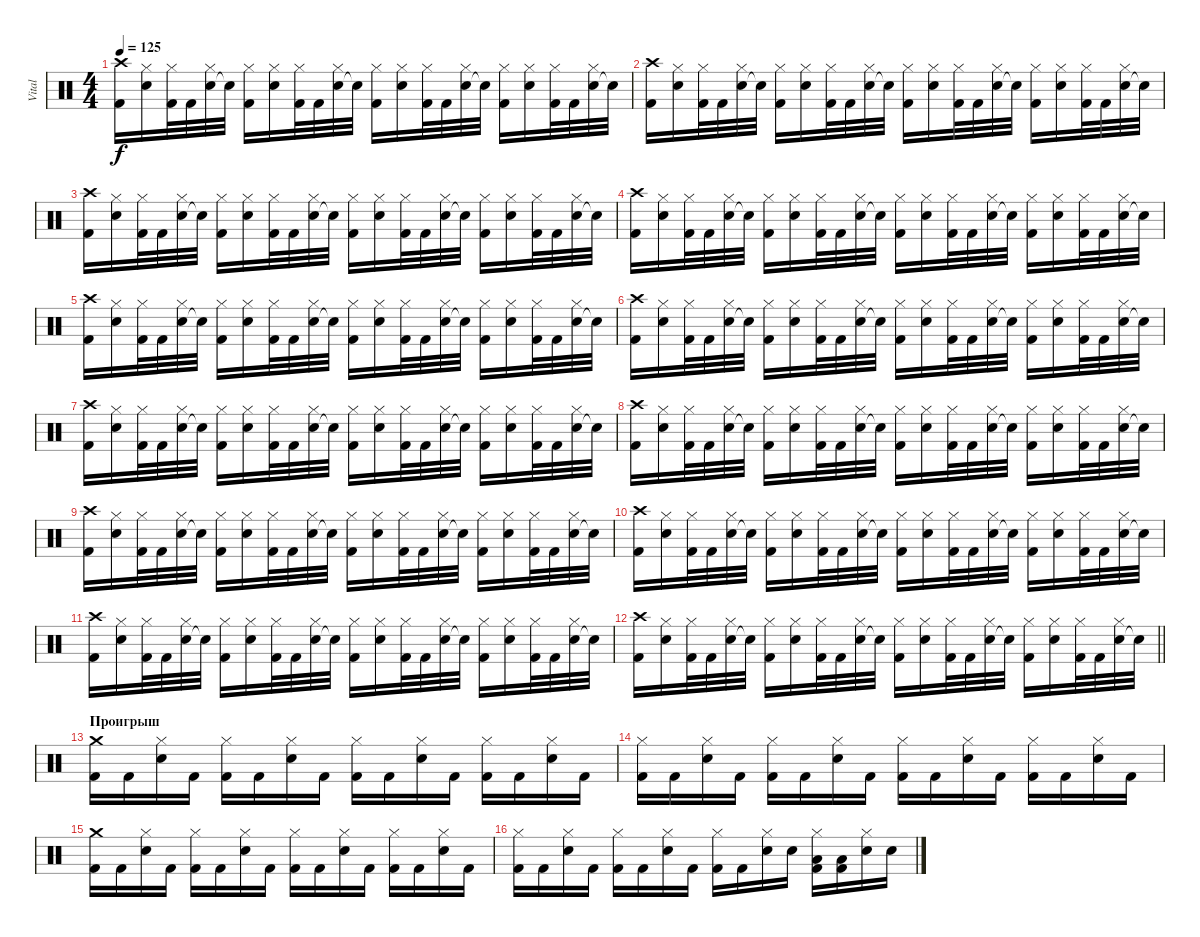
\track ("Vital" "Vital") {instrument percussion}
\staff {score}
\articulation defaults
\ts (4 4)
\tempo 125
\clef neutral
\ks c
("Kick (hit) 2" "Crash high (hit)").16{dy f} ("Snare (hit) 2" "Hi-Hat (closed)").16 ("Kick (hit) 2" "Hi-Hat (closed)").32 "Kick (hit) 2".32 ("Snare (hit) 2" "Hi-Hat (closed)").32 "Snare (hit) 2"{t}.32 ("Kick (hit) 2" "Hi-Hat (closed)").16 ("Snare (hit) 2" "Hi-Hat (closed)").16 ("Kick (hit) 2" "Hi-Hat (closed)").32 "Kick (hit) 2".32 ("Snare (hit) 2" "Hi-Hat (closed)").32 "Snare (hit)"{t}.32 ("Kick (hit) 2" "Hi-Hat (closed)").16 ("Snare (hit) 2" "Hi-Hat (closed)").16 ("Kick (hit) 2" "Hi-Hat (closed)").32 "Kick (hit) 2".32 ("Snare (hit) 2" "Hi-Hat (closed)").32 "Snare (hit)"{t}.32 ("Kick (hit) 2" "Hi-Hat (closed)").16 ("Snare (hit) 2" "Hi-Hat (closed)").16 ("Kick (hit) 2" "Hi-Hat (closed)").32 "Kick (hit) 2".32 ("Snare (hit) 2" "Hi-Hat (closed)").32 "Snare (hit)"{t}.32 |
("Kick (hit) 2" "Crash high (hit)").16 ("Snare (hit) 2" "Hi-Hat (closed)").16 ("Kick (hit) 2" "Hi-Hat (closed)").32 "Kick (hit) 2".32 ("Snare (hit) 2" "Hi-Hat (closed)").32 "Snare (hit) 2"{t}.32 ("Kick (hit) 2" "Hi-Hat (closed)").16 ("Snare (hit) 2" "Hi-Hat (closed)").16 ("Kick (hit) 2" "Hi-Hat (closed)").32 "Kick (hit) 2".32 ("Snare (hit) 2" "Hi-Hat (closed)").32 "Snare (hit)"{t}.32 ("Kick (hit) 2" "Hi-Hat (closed)").16 ("Snare (hit) 2" "Hi-Hat (closed)").16 ("Kick (hit) 2" "Hi-Hat (closed)").32 "Kick (hit) 2".32 ("Snare (hit) 2" "Hi-Hat (closed)").32 "Snare (hit)"{t}.32 ("Kick (hit) 2" "Hi-Hat (closed)").16 ("Snare (hit) 2" "Hi-Hat (closed)").16 ("Kick (hit) 2" "Hi-Hat (closed)").32 "Kick (hit) 2".32 ("Snare (hit) 2" "Hi-Hat (closed)").32 "Snare (hit)"{t}.32 |
("Kick (hit) 2" "Crash high (hit)").16 ("Snare (hit) 2" "Hi-Hat (closed)").16 ("Kick (hit) 2" "Hi-Hat (closed)").32 "Kick (hit) 2".32 ("Snare (hit) 2" "Hi-Hat (closed)").32 "Snare (hit) 2"{t}.32 ("Kick (hit) 2" "Hi-Hat (closed)").16 ("Snare (hit) 2" "Hi-Hat (closed)").16 ("Kick (hit) 2" "Hi-Hat (closed)").32 "Kick (hit) 2".32 ("Snare (hit) 2" "Hi-Hat (closed)").32 "Snare (hit)"{t}.32 ("Kick (hit) 2" "Hi-Hat (closed)").16 ("Snare (hit) 2" "Hi-Hat (closed)").16 ("Kick (hit) 2" "Hi-Hat (closed)").32 "Kick (hit) 2".32 ("Snare (hit) 2" "Hi-Hat (closed)").32 "Snare (hit)"{t}.32 ("Kick (hit) 2" "Hi-Hat (closed)").16 ("Snare (hit) 2" "Hi-Hat (closed)").16 ("Kick (hit) 2" "Hi-Hat (closed)").32 "Kick (hit) 2".32 ("Snare (hit) 2" "Hi-Hat (closed)").32 "Snare (hit)"{t}.32 |
("Kick (hit) 2" "Crash high (hit)").16 ("Snare (hit) 2" "Hi-Hat (closed)").16 ("Kick (hit) 2" "Hi-Hat (closed)").32 "Kick (hit) 2".32 ("Snare (hit) 2" "Hi-Hat (closed)").32 "Snare (hit) 2"{t}.32 ("Kick (hit) 2" "Hi-Hat (closed)").16 ("Snare (hit) 2" "Hi-Hat (closed)").16 ("Kick (hit) 2" "Hi-Hat (closed)").32 "Kick (hit) 2".32 ("Snare (hit) 2" "Hi-Hat (closed)").32 "Snare (hit)"{t}.32 ("Kick (hit) 2" "Hi-Hat (closed)").16 ("Snare (hit) 2" "Hi-Hat (closed)").16 ("Kick (hit) 2" "Hi-Hat (closed)").32 "Kick (hit) 2".32 ("Snare (hit) 2" "Hi-Hat (closed)").32 "Snare (hit)"{t}.32 ("Kick (hit) 2" "Hi-Hat (closed)").16 ("Snare (hit) 2" "Hi-Hat (closed)").16 ("Kick (hit) 2" "Hi-Hat (closed)").32 "Kick (hit) 2".32 ("Snare (hit) 2" "Hi-Hat (closed)").32 "Snare (hit)"{t}.32 |
("Kick (hit) 2" "Crash high (hit)").16 ("Snare (hit) 2" "Hi-Hat (closed)").16 ("Kick (hit) 2" "Hi-Hat (closed)").32 "Kick (hit) 2".32 ("Snare (hit) 2" "Hi-Hat (closed)").32 "Snare (hit) 2"{t}.32 ("Kick (hit) 2" "Hi-Hat (closed)").16 ("Snare (hit) 2" "Hi-Hat (closed)").16 ("Kick (hit) 2" "Hi-Hat (closed)").32 "Kick (hit) 2".32 ("Snare (hit) 2" "Hi-Hat (closed)").32 "Snare (hit)"{t}.32 ("Kick (hit) 2" "Hi-Hat (closed)").16 ("Snare (hit) 2" "Hi-Hat (closed)").16 ("Kick (hit) 2" "Hi-Hat (closed)").32 "Kick (hit) 2".32 ("Snare (hit) 2" "Hi-Hat (closed)").32 "Snare (hit)"{t}.32 ("Kick (hit) 2" "Hi-Hat (closed)").16 ("Snare (hit) 2" "Hi-Hat (closed)").16 ("Kick (hit) 2" "Hi-Hat (closed)").32 "Kick (hit) 2".32 ("Snare (hit) 2" "Hi-Hat (closed)").32 "Snare (hit)"{t}.32 |
("Kick (hit) 2" "Crash high (hit)").16 ("Snare (hit) 2" "Hi-Hat (closed)").16 ("Kick (hit) 2" "Hi-Hat (closed)").32 "Kick (hit) 2".32 ("Snare (hit) 2" "Hi-Hat (closed)").32 "Snare (hit) 2"{t}.32 ("Kick (hit) 2" "Hi-Hat (closed)").16 ("Snare (hit) 2" "Hi-Hat (closed)").16 ("Kick (hit) 2" "Hi-Hat (closed)").32 "Kick (hit) 2".32 ("Snare (hit) 2" "Hi-Hat (closed)").32 "Snare (hit)"{t}.32 ("Kick (hit) 2" "Hi-Hat (closed)").16 ("Snare (hit) 2" "Hi-Hat (closed)").16 ("Kick (hit) 2" "Hi-Hat (closed)").32 "Kick (hit) 2".32 ("Snare (hit) 2" "Hi-Hat (closed)").32 "Snare (hit)"{t}.32 ("Kick (hit) 2" "Hi-Hat (closed)").16 ("Snare (hit) 2" "Hi-Hat (closed)").16 ("Kick (hit) 2" "Hi-Hat (closed)").32 "Kick (hit) 2".32 ("Snare (hit) 2" "Hi-Hat (closed)").32 "Snare (hit)"{t}.32 |
("Kick (hit) 2" "Crash high (hit)").16 ("Snare (hit) 2" "Hi-Hat (closed)").16 ("Kick (hit) 2" "Hi-Hat (closed)").32 "Kick (hit) 2".32 ("Snare (hit) 2" "Hi-Hat (closed)").32 "Snare (hit) 2"{t}.32 ("Kick (hit) 2" "Hi-Hat (closed)").16 ("Snare (hit) 2" "Hi-Hat (closed)").16 ("Kick (hit) 2" "Hi-Hat (closed)").32 "Kick (hit) 2".32 ("Snare (hit) 2" "Hi-Hat (closed)").32 "Snare (hit)"{t}.32 ("Kick (hit) 2" "Hi-Hat (closed)").16 ("Snare (hit) 2" "Hi-Hat (closed)").16 ("Kick (hit) 2" "Hi-Hat (closed)").32 "Kick (hit) 2".32 ("Snare (hit) 2" "Hi-Hat (closed)").32 "Snare (hit)"{t}.32 ("Kick (hit) 2" "Hi-Hat (closed)").16 ("Snare (hit) 2" "Hi-Hat (closed)").16 ("Kick (hit) 2" "Hi-Hat (closed)").32 "Kick (hit) 2".32 ("Snare (hit) 2" "Hi-Hat (closed)").32 "Snare (hit)"{t}.32 |
("Kick (hit) 2" "Crash high (hit)").16 ("Snare (hit) 2" "Hi-Hat (closed)").16 ("Kick (hit) 2" "Hi-Hat (closed)").32 "Kick (hit) 2".32 ("Snare (hit) 2" "Hi-Hat (closed)").32 "Snare (hit) 2"{t}.32 ("Kick (hit) 2" "Hi-Hat (closed)").16 ("Snare (hit) 2" "Hi-Hat (closed)").16 ("Kick (hit) 2" "Hi-Hat (closed)").32 "Kick (hit) 2".32 ("Snare (hit) 2" "Hi-Hat (closed)").32 "Snare (hit)"{t}.32 ("Kick (hit) 2" "Hi-Hat (closed)").16 ("Snare (hit) 2" "Hi-Hat (closed)").16 ("Kick (hit) 2" "Hi-Hat (closed)").32 "Kick (hit) 2".32 ("Snare (hit) 2" "Hi-Hat (closed)").32 "Snare (hit)"{t}.32 ("Kick (hit) 2" "Hi-Hat (closed)").16 ("Snare (hit) 2" "Hi-Hat (closed)").16 ("Kick (hit) 2" "Hi-Hat (closed)").32 "Kick (hit) 2".32 ("Snare (hit) 2" "Hi-Hat (closed)").32 "Snare (hit)"{t}.32 |
("Kick (hit) 2" "Crash high (hit)").16 ("Snare (hit) 2" "Hi-Hat (closed)").16 ("Kick (hit) 2" "Hi-Hat (closed)").32 "Kick (hit) 2".32 ("Snare (hit) 2" "Hi-Hat (closed)").32 "Snare (hit) 2"{t}.32 ("Kick (hit) 2" "Hi-Hat (closed)").16 ("Snare (hit) 2" "Hi-Hat (closed)").16 ("Kick (hit) 2" "Hi-Hat (closed)").32 "Kick (hit) 2".32 ("Snare (hit) 2" "Hi-Hat (closed)").32 "Snare (hit)"{t}.32 ("Kick (hit) 2" "Hi-Hat (closed)").16 ("Snare (hit) 2" "Hi-Hat (closed)").16 ("Kick (hit) 2" "Hi-Hat (closed)").32 "Kick (hit) 2".32 ("Snare (hit) 2" "Hi-Hat (closed)").32 "Snare (hit)"{t}.32 ("Kick (hit) 2" "Hi-Hat (closed)").16 ("Snare (hit) 2" "Hi-Hat (closed)").16 ("Kick (hit) 2" "Hi-Hat (closed)").32 "Kick (hit) 2".32 ("Snare (hit) 2" "Hi-Hat (closed)").32 "Snare (hit)"{t}.32 |
("Kick (hit) 2" "Crash high (hit)").16 ("Snare (hit) 2" "Hi-Hat (closed)").16 ("Kick (hit) 2" "Hi-Hat (closed)").32 "Kick (hit) 2".32 ("Snare (hit) 2" "Hi-Hat (closed)").32 "Snare (hit) 2"{t}.32 ("Kick (hit) 2" "Hi-Hat (closed)").16 ("Snare (hit) 2" "Hi-Hat (closed)").16 ("Kick (hit) 2" "Hi-Hat (closed)").32 "Kick (hit) 2".32 ("Snare (hit) 2" "Hi-Hat (closed)").32 "Snare (hit)"{t}.32 ("Kick (hit) 2" "Hi-Hat (closed)").16 ("Snare (hit) 2" "Hi-Hat (closed)").16 ("Kick (hit) 2" "Hi-Hat (closed)").32 "Kick (hit) 2".32 ("Snare (hit) 2" "Hi-Hat (closed)").32 "Snare (hit)"{t}.32 ("Kick (hit) 2" "Hi-Hat (closed)").16 ("Snare (hit) 2" "Hi-Hat (closed)").16 ("Kick (hit) 2" "Hi-Hat (closed)").32 "Kick (hit) 2".32 ("Snare (hit) 2" "Hi-Hat (closed)").32 "Snare (hit)"{t}.32 |
("Kick (hit) 2" "Crash high (hit)").16 ("Snare (hit) 2" "Hi-Hat (closed)").16 ("Kick (hit) 2" "Hi-Hat (closed)").32 "Kick (hit) 2".32 ("Snare (hit) 2" "Hi-Hat (closed)").32 "Snare (hit) 2"{t}.32 ("Kick (hit) 2" "Hi-Hat (closed)").16 ("Snare (hit) 2" "Hi-Hat (closed)").16 ("Kick (hit) 2" "Hi-Hat (closed)").32 "Kick (hit) 2".32 ("Snare (hit) 2" "Hi-Hat (closed)").32 "Snare (hit)"{t}.32 ("Kick (hit) 2" "Hi-Hat (closed)").16 ("Snare (hit) 2" "Hi-Hat (closed)").16 ("Kick (hit) 2" "Hi-Hat (closed)").32 "Kick (hit) 2".32 ("Snare (hit) 2" "Hi-Hat (closed)").32 "Snare (hit)"{t}.32 ("Kick (hit) 2" "Hi-Hat (closed)").16 ("Snare (hit) 2" "Hi-Hat (closed)").16 ("Kick (hit) 2" "Hi-Hat (closed)").32 "Kick (hit) 2".32 ("Snare (hit) 2" "Hi-Hat (closed)").32 "Snare (hit)"{t}.32 |
\barLineRight lightlight
("Kick (hit) 2" "Crash high (hit)").16 ("Snare (hit) 2" "Hi-Hat (closed)").16 ("Kick (hit) 2" "Hi-Hat (closed)").32 "Kick (hit) 2".32 ("Snare (hit) 2" "Hi-Hat (closed)").32 "Snare (hit) 2"{t}.32 ("Kick (hit) 2" "Hi-Hat (closed)").16 ("Snare (hit) 2" "Hi-Hat (closed)").16 ("Kick (hit) 2" "Hi-Hat (closed)").32 "Kick (hit) 2".32 ("Snare (hit) 2" "Hi-Hat (closed)").32 "Snare (hit)"{t}.32 ("Kick (hit) 2" "Hi-Hat (closed)").16 ("Snare (hit) 2" "Hi-Hat (closed)").16 ("Kick (hit) 2" "Hi-Hat (closed)").32 "Kick (hit) 2".32 ("Snare (hit) 2" "Hi-Hat (closed)").32 "Snare (hit)"{t}.32 ("Kick (hit) 2" "Hi-Hat (closed)").16 ("Snare (hit) 2" "Hi-Hat (closed)").16 ("Kick (hit) 2" "Hi-Hat (closed)").32 "Kick (hit) 2".32 ("Snare (hit) 2" "Hi-Hat (closed)").32 "Snare (hit)"{t}.32 |
\section ("" "Проигрыш")
("Kick (hit) 2" "Crash medium (hit)").16 "Kick (hit) 2".16 ("Snare (hit) 2" "Hi-Hat (closed)").16 "Kick (hit) 2".16 ("Kick (hit) 2" "Hi-Hat (closed)").16 "Kick (hit) 2".16 ("Snare (hit) 2" "Hi-Hat (closed)").16 "Kick (hit) 2".16 ("Kick (hit) 2" "Hi-Hat (closed)").16 "Kick (hit) 2".16 ("Snare (hit) 2" "Hi-Hat (closed)").16 "Kick (hit) 2".16 ("Kick (hit) 2" "Hi-Hat (closed)").16 "Kick (hit) 2".16 ("Snare (hit) 2" "Hi-Hat (closed)").16 "Kick (hit) 2".16 |
("Kick (hit) 2" "Hi-Hat (closed)").16 "Kick (hit) 2".16 ("Snare (hit) 2" "Hi-Hat (closed)").16 "Kick (hit) 2".16 ("Kick (hit) 2" "Hi-Hat (closed)").16 "Kick (hit) 2".16 ("Snare (hit) 2" "Hi-Hat (closed)").16 "Kick (hit) 2".16 ("Kick (hit) 2" "Hi-Hat (closed)").16 "Kick (hit) 2".16 ("Snare (hit) 2" "Hi-Hat (closed)").16 "Kick (hit) 2".16 ("Kick (hit) 2" "Hi-Hat (closed)").16 "Kick (hit) 2".16 ("Snare (hit) 2" "Hi-Hat (closed)").16 "Kick (hit) 2".16 |
("Kick (hit) 2" "Crash medium (hit)").16 "Kick (hit) 2".16 ("Snare (hit) 2" "Hi-Hat (closed)").16 "Kick (hit) 2".16 ("Kick (hit) 2" "Hi-Hat (closed)").16 "Kick (hit) 2".16 ("Snare (hit) 2" "Hi-Hat (closed)").16 "Kick (hit) 2".16 ("Kick (hit) 2" "Hi-Hat (closed)").16 "Kick (hit) 2".16 ("Snare (hit) 2" "Hi-Hat (closed)").16 "Kick (hit) 2".16 ("Kick (hit) 2" "Hi-Hat (closed)").16 "Kick (hit) 2".16 ("Snare (hit) 2" "Hi-Hat (closed)").16 "Kick (hit) 2".16 |
("Kick (hit) 2" "Hi-Hat (closed)").16 "Kick (hit) 2".16 ("Snare (hit) 2" "Hi-Hat (closed)").16 "Kick (hit) 2".16 ("Kick (hit) 2" "Hi-Hat (closed)").16 "Kick (hit) 2".16 ("Snare (hit) 2" "Hi-Hat (closed)").16 "Kick (hit) 2".16 ("Kick (hit) 2" "Hi-Hat (closed)").16 "Kick (hit) 2".16 ("Snare (hit) 2" "Hi-Hat (closed)").16 "Snare (hit) 2".16 ("Low Floor Tom (hit)" "Kick (hit) 2" "Hi-Hat (closed)").16 ("Low Floor Tom (hit)" "Kick (hit) 2").16 ("Snare (hit) 2" "Hi-Hat (closed)").16 "Snare (hit) 2".16
